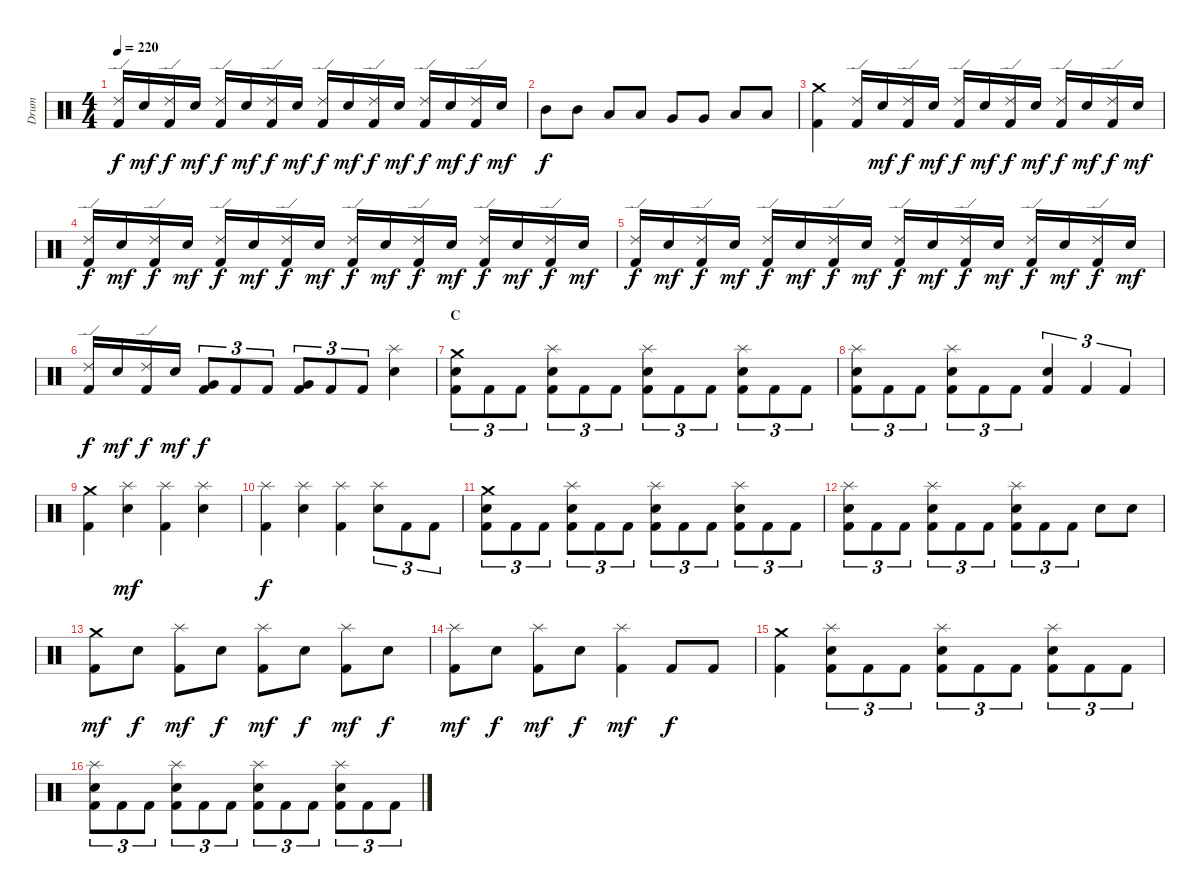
\track ("Drum" "Drum") {instrument percussion}
\staff {score}
\articulation defaults
\ts (4 4)
\tempo 220
\clef neutral
\ks c
("Ride (edge) 2" "Kick (hit) 2").16{dy f} "Electric Snare (hit)".16{dy mf} ("Ride (edge) 2" "Kick (hit) 2").16{dy f} "Electric Snare (hit)".16{dy mf} ("Ride (edge) 2" "Kick (hit) 2").16{dy f} "Electric Snare (hit)".16{dy mf} ("Ride (edge) 2" "Kick (hit) 2").16{dy f} "Electric Snare (hit)".16{dy mf} ("Ride (edge) 2" "Kick (hit) 2").16{dy f} "Electric Snare (hit)".16{dy mf} ("Ride (edge) 2" "Kick (hit) 2").16{dy f} "Electric Snare (hit)".16{dy mf} ("Ride (edge) 2" "Kick (hit) 2").16{dy f} "Electric Snare (hit)".16{dy mf} ("Ride (edge) 2" "Kick (hit) 2").16{dy f} "Electric Snare (hit)".16{dy mf} |
"Mid Tom (hit)".8{dy f} "Mid Tom (hit)".8 "Low Tom (hit)".8 "Low Tom (hit)".8 "Very Low Tom (hit)".8 "Very Low Tom (hit)".8 "Low Floor Tom (hit)".8 "Low Floor Tom (hit)".8 |
("Crash medium (hit)" "Kick (hit) 2").4 ("Ride (edge) 2" "Kick (hit) 2").16 "Electric Snare (hit)".16{dy mf} ("Ride (edge) 2" "Kick (hit) 2").16{dy f} "Electric Snare (hit)".16{dy mf} ("Ride (edge) 2" "Kick (hit) 2").16{dy f} "Electric Snare (hit)".16{dy mf} ("Ride (edge) 2" "Kick (hit) 2").16{dy f} "Electric Snare (hit)".16{dy mf} ("Ride (edge) 2" "Kick (hit) 2").16{dy f} "Electric Snare (hit)".16{dy mf} ("Ride (edge) 2" "Kick (hit) 2").16{dy f} "Electric Snare (hit)".16{dy mf} |
("Ride (edge) 2" "Kick (hit) 2").16{dy f} "Electric Snare (hit)".16{dy mf} ("Ride (edge) 2" "Kick (hit) 2").16{dy f} "Electric Snare (hit)".16{dy mf} ("Ride (edge) 2" "Kick (hit) 2").16{dy f} "Electric Snare (hit)".16{dy mf} ("Ride (edge) 2" "Kick (hit) 2").16{dy f} "Electric Snare (hit)".16{dy mf} ("Ride (edge) 2" "Kick (hit) 2").16{dy f} "Electric Snare (hit)".16{dy mf} ("Ride (edge) 2" "Kick (hit) 2").16{dy f} "Electric Snare (hit)".16{dy mf} ("Ride (edge) 2" "Kick (hit) 2").16{dy f} "Electric Snare (hit)".16{dy mf} ("Ride (edge) 2" "Kick (hit) 2").16{dy f} "Electric Snare (hit)".16{dy mf} |
("Ride (edge) 2" "Kick (hit) 2").16{dy f} "Electric Snare (hit)".16{dy mf} ("Ride (edge) 2" "Kick (hit) 2").16{dy f} "Electric Snare (hit)".16{dy mf} ("Ride (edge) 2" "Kick (hit) 2").16{dy f} "Electric Snare (hit)".16{dy mf} ("Ride (edge) 2" "Kick (hit) 2").16{dy f} "Electric Snare (hit)".16{dy mf} ("Ride (edge) 2" "Kick (hit) 2").16{dy f} "Electric Snare (hit)".16{dy mf} ("Ride (edge) 2" "Kick (hit) 2").16{dy f} "Electric Snare (hit)".16{dy mf} ("Ride (edge) 2" "Kick (hit) 2").16{dy f} "Electric Snare (hit)".16{dy mf} ("Ride (edge) 2" "Kick (hit) 2").16{dy f} "Electric Snare (hit)".16{dy mf} |
("Ride (edge) 2" "Kick (hit) 2").16{dy f} "Electric Snare (hit)".16{dy mf} ("Ride (edge) 2" "Kick (hit) 2").16{dy f} "Electric Snare (hit)".16{dy mf} ("Very Low Tom (hit)" "Kick (hit) 2").8{tu (3 2) dy f} "Kick (hit) 2".8{tu (3 2)} "Kick (hit) 2".8{tu (3 2)} ("Very Low Tom (hit)" "Kick (hit) 2").8{tu (3 2)} "Kick (hit) 2".8{tu (3 2)} "Kick (hit) 2".8{tu (3 2)} ("Splash (hit)" "Electric Snare (hit)").4 |
\section ("" "C")
("Crash medium (hit)" "Electric Snare (hit)" "Kick (hit) 2").8{tu (3 2)} "Kick (hit) 2".8{tu (3 2)} "Kick (hit) 2".8{tu (3 2)} ("Splash (hit)" "Electric Snare (hit)" "Kick (hit) 2").8{tu (3 2)} "Kick (hit) 2".8{tu (3 2)} "Kick (hit) 2".8{tu (3 2)} ("Splash (hit)" "Electric Snare (hit)" "Kick (hit) 2").8{tu (3 2)} "Kick (hit) 2".8{tu (3 2)} "Kick (hit) 2".8{tu (3 2)} ("Splash (hit)" "Electric Snare (hit)" "Kick (hit) 2").8{tu (3 2)} "Kick (hit) 2".8{tu (3 2)} "Kick (hit) 2".8{tu (3 2)} |
("Splash (hit)" "Electric Snare (hit)" "Kick (hit) 2").8{tu (3 2)} "Kick (hit) 2".8{tu (3 2)} "Kick (hit) 2".8{tu (3 2)} ("Splash (hit)" "Electric Snare (hit)" "Kick (hit) 2").8{tu (3 2)} "Kick (hit) 2".8{tu (3 2)} "Kick (hit) 2".8{tu (3 2)} ("Electric Snare (hit)" "Kick (hit) 2").4{tu (3 2)} "Kick (hit) 2".4{tu (3 2)} "Kick (hit) 2".4{tu (3 2)} |
("Crash medium (hit)" "Kick (hit) 2").4 ("Splash (hit)" "Electric Snare (hit)").4{dy mf} ("Splash (hit)" "Kick (hit) 2").4 ("Splash (hit)" "Electric Snare (hit)").4 |
("Splash (hit)" "Kick (hit) 2").4{dy f} ("Splash (hit)" "Electric Snare (hit)").4 ("Splash (hit)" "Kick (hit) 2").4 ("Splash (hit)" "Electric Snare (hit)").8{tu (3 2)} "Kick (hit) 2".8{tu (3 2)} "Kick (hit) 2".8{tu (3 2)} |
("Crash medium (hit)" "Electric Snare (hit)" "Kick (hit) 2").8{tu (3 2)} "Kick (hit) 2".8{tu (3 2)} "Kick (hit) 2".8{tu (3 2)} ("Splash (hit)" "Electric Snare (hit)" "Kick (hit) 2").8{tu (3 2)} "Kick (hit) 2".8{tu (3 2)} "Kick (hit) 2".8{tu (3 2)} ("Splash (hit)" "Electric Snare (hit)" "Kick (hit) 2").8{tu (3 2)} "Kick (hit) 2".8{tu (3 2)} "Kick (hit) 2".8{tu (3 2)} ("Splash (hit)" "Electric Snare (hit)" "Kick (hit) 2").8{tu (3 2)} "Kick (hit) 2".8{tu (3 2)} "Kick (hit) 2".8{tu (3 2)} |
("Splash (hit)" "Electric Snare (hit)" "Kick (hit) 2").8{tu (3 2)} "Kick (hit) 2".8{tu (3 2)} "Kick (hit) 2".8{tu (3 2)} ("Splash (hit)" "Electric Snare (hit)" "Kick (hit) 2").8{tu (3 2)} "Kick (hit) 2".8{tu (3 2)} "Kick (hit) 2".8{tu (3 2)} ("Splash (hit)" "Electric Snare (hit)" "Kick (hit) 2").8{tu (3 2)} "Kick (hit) 2".8{tu (3 2)} "Kick (hit) 2".8{tu (3 2)} "Electric Snare (hit)".8 "Electric Snare (hit)".8 |
("Crash medium (hit)" "Kick (hit) 2").8{dy mf} "Electric Snare (hit)".8{dy f} ("Splash (hit)" "Kick (hit) 2").8{dy mf} "Electric Snare (hit)".8{dy f} ("Splash (hit)" "Kick (hit) 2").8{dy mf} "Electric Snare (hit)".8{dy f} ("Splash (hit)" "Kick (hit) 2").8{dy mf} "Electric Snare (hit)".8{dy f} |
("Splash (hit)" "Kick (hit) 2").8{dy mf} "Electric Snare (hit)".8{dy f} ("Splash (hit)" "Kick (hit) 2").8{dy mf} "Electric Snare (hit)".8{dy f} ("Splash (hit)" "Kick (hit) 2").4{dy mf} "Kick (hit) 2".8{dy f} "Kick (hit) 2".8 |
("Crash medium (hit)" "Kick (hit) 2").4 ("Splash (hit)" "Electric Snare (hit)" "Kick (hit) 2").8{tu (3 2)} "Kick (hit) 2".8{tu (3 2)} "Kick (hit) 2".8{tu (3 2)} ("Splash (hit)" "Electric Snare (hit)" "Kick (hit) 2").8{tu (3 2)} "Kick (hit) 2".8{tu (3 2)} "Kick (hit) 2".8{tu (3 2)} ("Splash (hit)" "Electric Snare (hit)" "Kick (hit) 2").8{tu (3 2)} "Kick (hit) 2".8{tu (3 2)} "Kick (hit) 2".8{tu (3 2)} |
("Splash (hit)" "Electric Snare (hit)" "Kick (hit) 2").8{tu (3 2)} "Kick (hit) 2".8{tu (3 2)} "Kick (hit) 2".8{tu (3 2)} ("Splash (hit)" "Electric Snare (hit)" "Kick (hit) 2").8{tu (3 2)} "Kick (hit) 2".8{tu (3 2)} "Kick (hit) 2".8{tu (3 2)} ("Splash (hit)" "Electric Snare (hit)" "Kick (hit) 2").8{tu (3 2)} "Kick (hit) 2".8{tu (3 2)} "Kick (hit) 2".8{tu (3 2)} ("Splash (hit)" "Electric Snare (hit)" "Kick (hit) 2").8{tu (3 2)} "Kick (hit) 2".8{tu (3 2)} "Kick (hit) 2".8{tu (3 2)}
